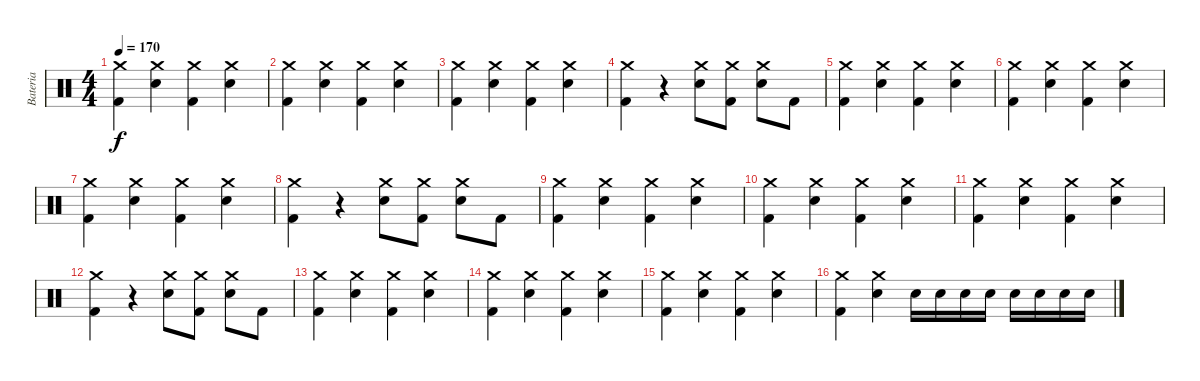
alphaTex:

\track ("Bateria" "Bateria") {instrument percussion}
\staff {score}
\articulation defaults
\ts (4 4)
\tempo 170
\clef neutral
\ks c
("Crash medium (hit)" "Kick (hit) 2").4{dy f} ("Crash medium (hit)" "Electric Snare (hit)").4 ("Crash medium (hit)" "Kick (hit) 2").4 ("Crash medium (hit)" "Electric Snare (hit)").4 |
("Crash medium (hit)" "Kick (hit) 2").4 ("Crash medium (hit)" "Electric Snare (hit)").4 ("Crash medium (hit)" "Kick (hit) 2").4 ("Crash medium (hit)" "Electric Snare (hit)").4 |
("Crash medium (hit)" "Kick (hit) 2").4 ("Crash medium (hit)" "Electric Snare (hit)").4 ("Crash medium (hit)" "Kick (hit) 2").4 ("Crash medium (hit)" "Electric Snare (hit)").4 |
("Crash medium (hit)" "Kick (hit) 2").4 r.4 ("Crash medium (hit)" "Electric Snare (hit)").8 ("Crash medium (hit)" "Kick (hit) 2").8 ("Crash medium (hit)" "Electric Snare (hit)").8 "Kick (hit) 2".8 |
("Crash medium (hit)" "Kick (hit) 2").4 ("Crash medium (hit)" "Electric Snare (hit)").4 ("Crash medium (hit)" "Kick (hit) 2").4 ("Crash medium (hit)" "Electric Snare (hit)").4 |
("Crash medium (hit)" "Kick (hit) 2").4 ("Crash medium (hit)" "Electric Snare (hit)").4 ("Crash medium (hit)" "Kick (hit) 2").4 ("Crash medium (hit)" "Electric Snare (hit)").4 |
("Crash medium (hit)" "Kick (hit) 2").4 ("Crash medium (hit)" "Electric Snare (hit)").4 ("Crash medium (hit)" "Kick (hit) 2").4 ("Crash medium (hit)" "Electric Snare (hit)").4 |
("Crash medium (hit)" "Kick (hit) 2").4 r.4 ("Crash medium (hit)" "Electric Snare (hit)").8 ("Crash medium (hit)" "Kick (hit) 2").8 ("Crash medium (hit)" "Electric Snare (hit)").8 "Kick (hit) 2".8 |
("Crash medium (hit)" "Kick (hit) 2").4 ("Crash medium (hit)" "Electric Snare (hit)").4 ("Crash medium (hit)" "Kick (hit) 2").4 ("Crash medium (hit)" "Electric Snare (hit)").4 |
("Crash medium (hit)" "Kick (hit) 2").4 ("Crash medium (hit)" "Electric Snare (hit)").4 ("Crash medium (hit)" "Kick (hit) 2").4 ("Crash medium (hit)" "Electric Snare (hit)").4 |
("Crash medium (hit)" "Kick (hit) 2").4 ("Crash medium (hit)" "Electric Snare (hit)").4 ("Crash medium (hit)" "Kick (hit) 2").4 ("Crash medium (hit)" "Electric Snare (hit)").4 |
("Crash medium (hit)" "Kick (hit) 2").4 r.4 ("Crash medium (hit)" "Electric Snare (hit)").8 ("Crash medium (hit)" "Kick (hit) 2").8 ("Crash medium (hit)" "Electric Snare (hit)").8 "Kick (hit) 2".8 |
("Crash medium (hit)" "Kick (hit) 2").4 ("Crash medium (hit)" "Electric Snare (hit)").4 ("Crash medium (hit)" "Kick (hit) 2").4 ("Crash medium (hit)" "Electric Snare (hit)").4 |
("Crash medium (hit)" "Kick (hit) 2").4 ("Crash medium (hit)" "Electric Snare (hit)").4 ("Crash medium (hit)" "Kick (hit) 2").4 ("Crash medium (hit)" "Electric Snare (hit)").4 |
("Crash medium (hit)" "Kick (hit) 2").4 ("Crash medium (hit)" "Electric Snare (hit)").4 ("Crash medium (hit)" "Kick (hit) 2").4 ("Crash medium (hit)" "Electric Snare (hit)").4 |
("Crash medium (hit)" "Kick (hit) 2").4 ("Crash medium (hit)" "Electric Snare (hit)").4 "Electric Snare (hit)".16 "Electric Snare (hit)".16 "Electric Snare (hit)".16 "Electric Snare (hit)".16 "Electric Snare (hit)".16 "Electric Snare (hit)".16 "Electric Snare (hit)".16 "Electric Snare (hit)".16
